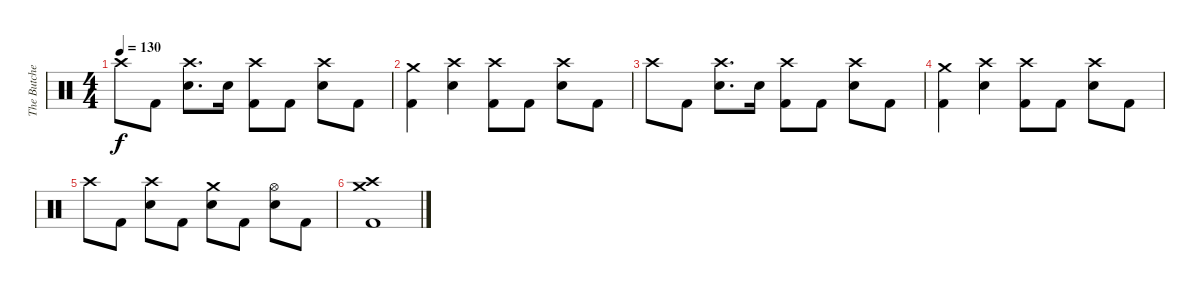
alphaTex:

\track ("The Butcher (Drums)" "The Butche") {instrument percussion}
\staff {score}
\articulation defaults
\ts (4 4)
\tempo 130
\clef neutral
\ks c "Crash high (hit)".8{dy f} "Kick (hit) 2".8
("Crash high (hit)" "Electric Snare (hit)").8{d} "Electric Snare (hit)".16 ("Crash high (hit)" "Kick (hit) 2").8 "Kick (hit) 2".8 ("Crash high (hit)" "Electric Snare (hit)").8 "Kick (hit) 2".8 |
("Crash medium (hit)" "Kick (hit) 2").4 ("Crash high (hit)" "Electric Snare (hit)").4 ("Crash high (hit)" "Kick (hit) 2").8 "Kick (hit) 2".8 ("Crash high (hit)" "Electric Snare (hit)").8 "Kick (hit) 2".8 |
"Crash high (hit)".8 "Kick (hit) 2".8 ("Crash high (hit)" "Electric Snare (hit)").8{d} "Electric Snare (hit)".16 ("Crash high (hit)" "Kick (hit) 2").8 "Kick (hit) 2".8 ("Crash high (hit)" "Electric Snare (hit)").8 "Kick (hit) 2".8 |
("Crash medium (hit)" "Kick (hit) 2").4 ("Crash high (hit)" "Electric Snare (hit)").4 ("Crash high (hit)" "Kick (hit) 2").8 "Kick (hit) 2".8 ("Crash high (hit)" "Electric Snare (hit)").8 "Kick (hit) 2".8 |
"Crash high (hit)".8 "Kick (hit) 2".8 ("Crash high (hit)" "Electric Snare (hit)").8 "Kick (hit) 2".8 ("Crash medium (hit)" "Electric Snare (hit)").8 "Kick (hit) 2".8 ("Hi-Hat (open)" "Electric Snare (hit)").8 "Kick (hit) 2".8 |
("Crash medium (hit)" "Crash high (hit)" "Kick (hit) 2").1
